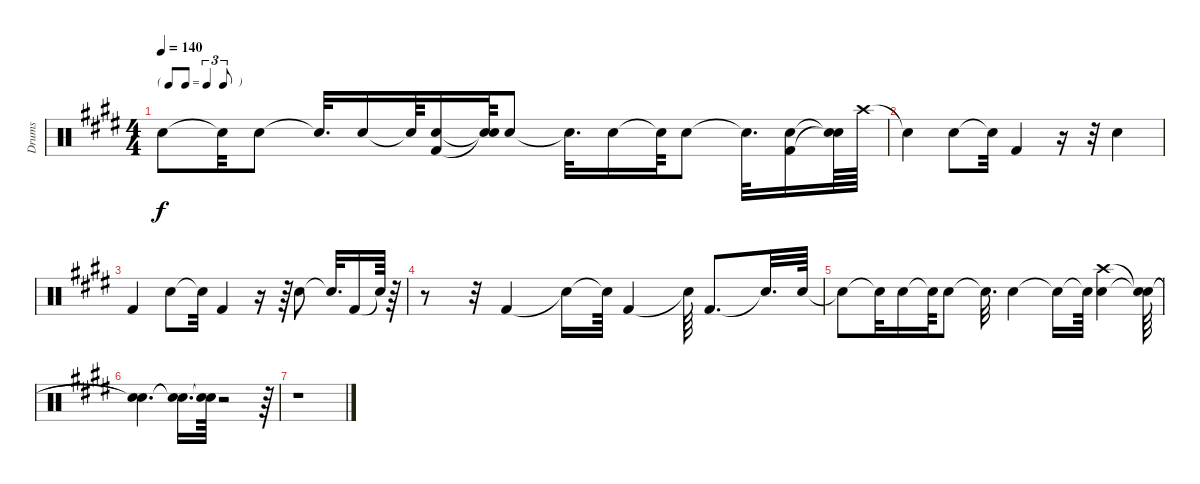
\track ("Drums" "Drums") {instrument percussion}
\staff {score}
\articulation defaults
\ts (4 4)
\tf triplet8th
\tempo 140
\clef neutral
\ks e "Snare (hit)"{t}.8{dy f} "Snare (hit)"{t}.32 "Snare (hit) 2".8 "Snare (hit)"{t}.32{d} "Snare (hit) 2".16 "Snare (hit)"{t}.64
("Kick (hit) 2" "Snare (hit) 2").16 ("Snare (hit)"{t} "Snare (hit)"{t}).64 "Snare (hit) 2".8 "Snare (hit)"{t}.32{d} "Snare (hit) 2".16 "Snare (hit)"{t}.64 "Snare (hit) 2".8 "Snare (hit)"{t}.32{d} ("Kick (hit) 2" "Snare (hit) 2").16 ("Snare (hit)"{t} "Snare (hit)"{t}).64 "Crash high (hit)".64 |
"Snare (hit)"{t}.4 "Snare (hit) 2".8 "Snare (hit)"{t}.32 "Kick (hit) 2".4 r.16 r.32 "Snare (hit) 2".4 |
"Kick (hit) 2".4 "Snare (hit) 2".8 "Snare (hit)"{t}.32 "Kick (hit) 2".4 r.16 r.64 "Snare (hit) 2".8 "Snare (hit)"{t}.32{d} "Kick (hit) 2".16 "Snare (hit)"{t}.64 r.64 |
r.8 r.32 "Kick (hit) 2".4 "Snare (hit)"{t}.16 "Snare (hit)"{t}.64 "Kick (hit) 2".4 "Snare (hit)"{t}.64 "Kick (hit) 2".8{d} "Snare (hit)"{t}.32{d} "Snare (hit) 2".64 |
"Snare (hit)"{t}.8 "Snare (hit)"{t}.32 "Snare (hit) 2".16 "Snare (hit)"{t}.64 "Snare (hit) 2".8 "Snare (hit)"{t}.32{d} "Snare (hit) 2".4 "Snare (hit)"{t}.16 "Snare (hit)"{t}.64 ("Snare (hit) 2" "Crash high (hit)").4 ("Snare (hit)"{t} "Snare (hit)"{t}).64 |
("Snare (hit)"{t} "Snare (hit)"{t}).4{d} ("Snare (hit)"{t} "Snare (hit)"{t}).16{d} ("Snare (hit)"{t} "Snare (hit)"{t}).64 r.2 r.64 |
r.1
